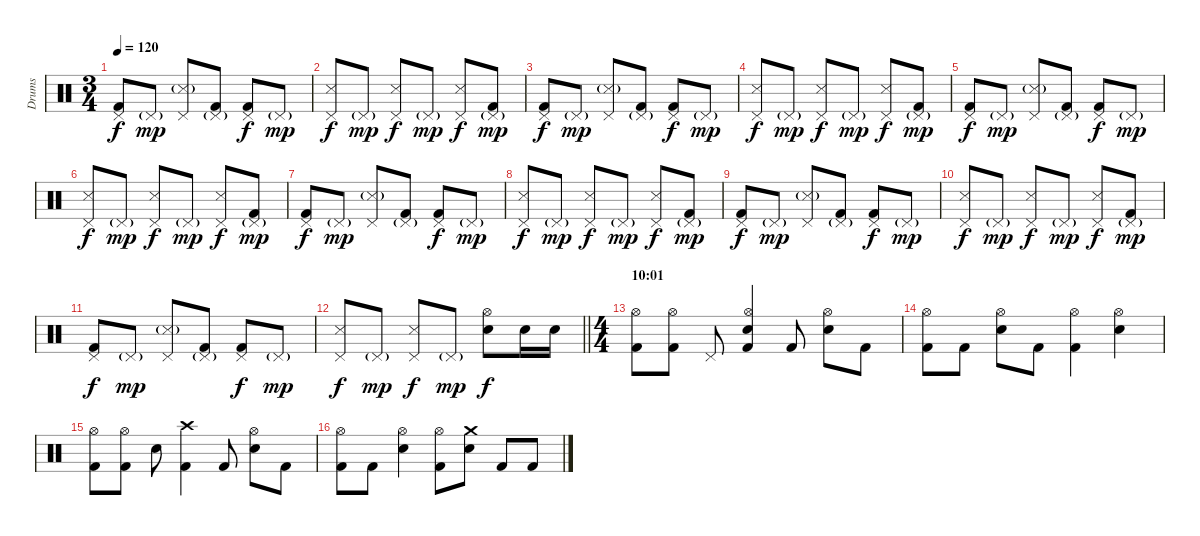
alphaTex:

\track ("Drums" "Drums") {instrument percussion}
\staff {score}
\articulation defaults
\ts (3 4)
\tempo 120
\clef neutral
\ks c
("Pedal Hi-Hat (hit)" "Kick (hit) 2").8{dy f} "Pedal Hi-Hat (hit)"{g}.8{dy mp} ("Pedal Hi-Hat (hit)" "Snare (side stick) 3"{g}).8 ("Pedal Hi-Hat (hit)"{g} "Kick (hit) 2").8 ("Pedal Hi-Hat (hit)" "Kick (hit) 2").8{dy f} "Pedal Hi-Hat (hit)"{g}.8{dy mp} |
("Pedal Hi-Hat (hit)" "Snare (side stick) 3").8{dy f} "Pedal Hi-Hat (hit)"{g}.8{dy mp} ("Pedal Hi-Hat (hit)" "Snare (side stick) 3").8{dy f} "Pedal Hi-Hat (hit)"{g}.8{dy mp} ("Pedal Hi-Hat (hit)" "Snare (side stick) 3").8{dy f} ("Pedal Hi-Hat (hit)"{g} "Kick (hit) 2").8{dy mp} |
("Pedal Hi-Hat (hit)" "Kick (hit) 2").8{dy f} "Pedal Hi-Hat (hit)"{g}.8{dy mp} ("Pedal Hi-Hat (hit)" "Snare (side stick) 3"{g}).8 ("Pedal Hi-Hat (hit)"{g} "Kick (hit) 2").8 ("Pedal Hi-Hat (hit)" "Kick (hit) 2").8{dy f} "Pedal Hi-Hat (hit)"{g}.8{dy mp} |
("Pedal Hi-Hat (hit)" "Snare (side stick) 3").8{dy f} "Pedal Hi-Hat (hit)"{g}.8{dy mp} ("Pedal Hi-Hat (hit)" "Snare (side stick) 3").8{dy f} "Pedal Hi-Hat (hit)"{g}.8{dy mp} ("Pedal Hi-Hat (hit)" "Snare (side stick) 3").8{dy f} ("Pedal Hi-Hat (hit)"{g} "Kick (hit) 2").8{dy mp} |
("Pedal Hi-Hat (hit)" "Kick (hit) 2").8{dy f} "Pedal Hi-Hat (hit)"{g}.8{dy mp} ("Pedal Hi-Hat (hit)" "Snare (side stick) 3"{g}).8 ("Pedal Hi-Hat (hit)"{g} "Kick (hit) 2").8 ("Pedal Hi-Hat (hit)" "Kick (hit) 2").8{dy f} "Pedal Hi-Hat (hit)"{g}.8{dy mp} |
("Pedal Hi-Hat (hit)" "Snare (side stick) 3").8{dy f} "Pedal Hi-Hat (hit)"{g}.8{dy mp} ("Pedal Hi-Hat (hit)" "Snare (side stick) 3").8{dy f} "Pedal Hi-Hat (hit)"{g}.8{dy mp} ("Pedal Hi-Hat (hit)" "Snare (side stick) 3").8{dy f} ("Pedal Hi-Hat (hit)"{g} "Kick (hit) 2").8{dy mp} |
("Pedal Hi-Hat (hit)" "Kick (hit) 2").8{dy f} "Pedal Hi-Hat (hit)"{g}.8{dy mp} ("Pedal Hi-Hat (hit)" "Snare (side stick) 3"{g}).8 ("Pedal Hi-Hat (hit)"{g} "Kick (hit) 2").8 ("Pedal Hi-Hat (hit)" "Kick (hit) 2").8{dy f} "Pedal Hi-Hat (hit)"{g}.8{dy mp} |
("Pedal Hi-Hat (hit)" "Snare (side stick) 3").8{dy f} "Pedal Hi-Hat (hit)"{g}.8{dy mp} ("Pedal Hi-Hat (hit)" "Snare (side stick) 3").8{dy f} "Pedal Hi-Hat (hit)"{g}.8{dy mp} ("Pedal Hi-Hat (hit)" "Snare (side stick) 3").8{dy f} ("Pedal Hi-Hat (hit)"{g} "Kick (hit) 2").8{dy mp} |
("Pedal Hi-Hat (hit)" "Kick (hit) 2").8{dy f} "Pedal Hi-Hat (hit)"{g}.8{dy mp} ("Pedal Hi-Hat (hit)" "Snare (side stick) 3"{g}).8 ("Pedal Hi-Hat (hit)"{g} "Kick (hit) 2").8 ("Pedal Hi-Hat (hit)" "Kick (hit) 2").8{dy f} "Pedal Hi-Hat (hit)"{g}.8{dy mp} |
("Pedal Hi-Hat (hit)" "Snare (side stick) 3").8{dy f} "Pedal Hi-Hat (hit)"{g}.8{dy mp} ("Pedal Hi-Hat (hit)" "Snare (side stick) 3").8{dy f} "Pedal Hi-Hat (hit)"{g}.8{dy mp} ("Pedal Hi-Hat (hit)" "Snare (side stick) 3").8{dy f} ("Pedal Hi-Hat (hit)"{g} "Kick (hit) 2").8{dy mp} |
("Pedal Hi-Hat (hit)" "Kick (hit) 2").8{dy f} "Pedal Hi-Hat (hit)"{g}.8{dy mp} ("Pedal Hi-Hat (hit)" "Snare (side stick) 3"{g}).8 ("Pedal Hi-Hat (hit)"{g} "Kick (hit) 2").8 ("Pedal Hi-Hat (hit)" "Kick (hit) 2").8{dy f} "Pedal Hi-Hat (hit)"{g}.8{dy mp} |
\barLineRight lightlight
("Pedal Hi-Hat (hit)" "Snare (side stick) 3").8{dy f} "Pedal Hi-Hat (hit)"{g}.8{dy mp} ("Pedal Hi-Hat (hit)" "Snare (side stick) 3").8{dy f} "Pedal Hi-Hat (hit)"{g}.8{dy mp} ("Hi-Hat (open)" "Snare (hit) 2").8{dy f} "Snare (hit) 2".16 "Snare (hit) 2".16 |
\ts (4 4)
\section ("" "10:01")
("Hi-Hat (open)" "Kick (hit) 2").8 ("Hi-Hat (open)" "Kick (hit) 2").8 "Pedal Hi-Hat (hit)".8 ("Hi-Hat (open)" "Snare (hit) 2" "Kick (hit) 2").4 "Kick (hit) 2".8 ("Hi-Hat (open)" "Snare (hit) 2").8 "Kick (hit) 2".8 |
("Hi-Hat (open)" "Kick (hit) 2").8 "Kick (hit) 2".8 ("Hi-Hat (open)" "Snare (hit) 2").8 "Kick (hit) 2".8 ("Hi-Hat (open)" "Kick (hit) 2").4 ("Hi-Hat (open)" "Snare (hit) 2").4 |
("Hi-Hat (open)" "Kick (hit) 2").8 ("Hi-Hat (open)" "Kick (hit) 2").8 "Snare (hit) 2".8 ("Crash high (hit)" "Kick (hit) 2").4 "Kick (hit) 2".8 ("Hi-Hat (open)" "Snare (hit) 2").8 "Kick (hit) 2".8 |
("Hi-Hat (open)" "Kick (hit) 2").8 "Kick (hit) 2".8 ("Hi-Hat (open)" "Snare (hit) 2").4 ("Hi-Hat (open)" "Kick (hit) 2").8 ("Crash medium (hit)" "Snare (hit) 2").8 "Kick (hit) 2".8 "Kick (hit) 2".8
